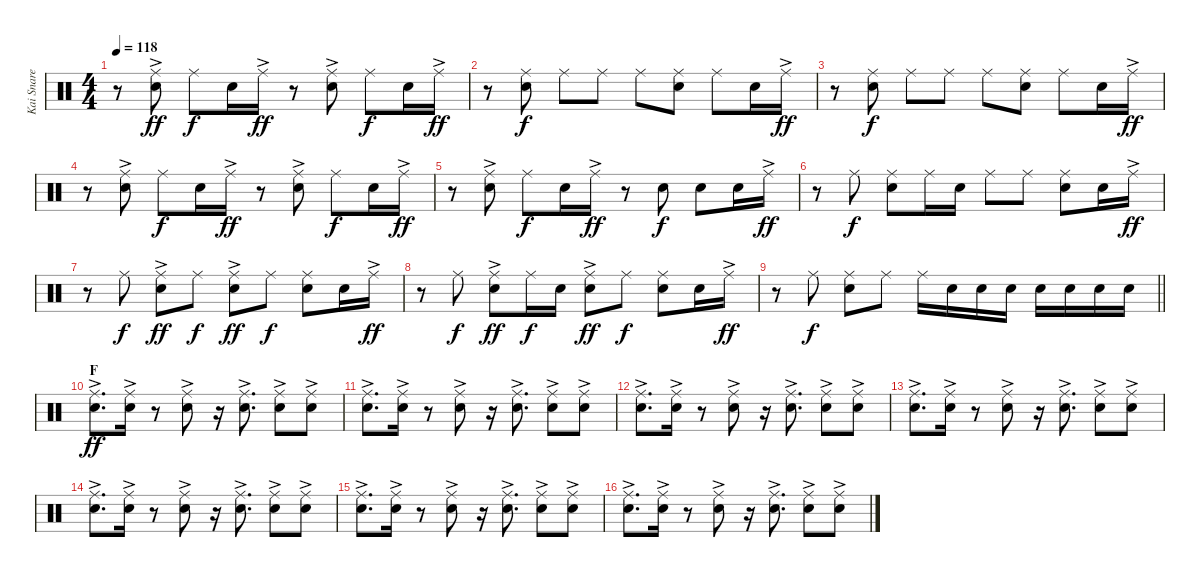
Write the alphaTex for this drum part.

\track ("Kai Snare" "Kai Snare") {instrument percussion}
\staff {score}
\articulation defaults
\ts (4 4)
\tempo 118
\clef neutral
\ks c
r.8{dy ff} ("Ride (middle)"{ac} "Snare (hit) 2").8 "Ride (middle)".8{dy f} "Snare (hit) 2".16 "Ride (middle)"{ac}.16{dy ff} r.8 ("Ride (middle)"{ac} "Snare (hit) 2").8 "Ride (middle)".8{dy f} "Snare (hit) 2".16 "Ride (middle)"{ac}.16{dy ff} |
r.8 ("Ride (middle)" "Snare (hit) 2").8{dy f} "Ride (middle)".8 "Ride (middle)".8 "Ride (middle)".8 ("Ride (middle)" "Snare (hit) 2").8 "Ride (middle)".8 "Snare (hit) 2".16 "Ride (middle)"{ac}.16{dy ff} |
r.8 ("Ride (middle)" "Snare (hit) 2").8{dy f} "Ride (middle)".8 "Ride (middle)".8 "Ride (middle)".8 ("Ride (middle)" "Snare (hit) 2").8 "Ride (middle)".8 "Snare (hit) 2".16 "Ride (middle)"{ac}.16{dy ff} |
r.8 ("Ride (middle)"{ac} "Snare (hit) 2").8 "Ride (middle)".8{dy f} "Snare (hit) 2".16 "Ride (middle)"{ac}.16{dy ff} r.8 ("Ride (middle)"{ac} "Snare (hit) 2").8 "Ride (middle)".8{dy f} "Snare (hit) 2".16 "Ride (middle)"{ac}.16{dy ff} |
r.8 ("Ride (middle)"{ac} "Snare (hit) 2").8 "Ride (middle)".8{dy f} "Snare (hit) 2".16 "Ride (middle)"{ac}.16{dy ff} r.8 "Snare (hit) 2".8{dy f} "Snare (hit) 2".8 "Snare (hit) 2".16 "Ride (middle)"{ac}.16{dy ff} |
r.8 "Ride (middle)".8{dy f} ("Ride (middle)" "Snare (hit) 2").8 "Ride (middle)".16 "Snare (hit) 2".16 "Ride (middle)".8 "Ride (middle)".8 ("Ride (middle)" "Snare (hit) 2").8 "Snare (hit) 2".16 "Ride (middle)"{ac}.16{dy ff} |
r.8 "Ride (middle)".8{dy f} ("Ride (middle)"{ac} "Snare (hit) 2").8{dy ff} "Ride (middle)".8{dy f} ("Ride (middle)"{ac} "Snare (hit) 2").8{dy ff} "Ride (middle)".8{dy f} ("Ride (middle)" "Snare (hit) 2").8 "Snare (hit) 2".16 "Ride (middle)"{ac}.16{dy ff} |
r.8 "Ride (middle)".8{dy f} ("Ride (middle)"{ac} "Snare (hit) 2").8{dy ff} "Ride (middle)".16{dy f} "Snare (hit) 2".16 ("Ride (middle)"{ac} "Snare (hit) 2").8{dy ff} "Ride (middle)".8{dy f} ("Ride (middle)" "Snare (hit) 2").8 "Snare (hit) 2".16 "Ride (middle)"{ac}.16{dy ff} |
\barLineRight lightlight
r.8 "Ride (middle)".8{dy f} ("Ride (middle)" "Snare (hit) 2").8 "Ride (middle)".8 "Ride (middle)".16 "Snare (hit) 2".16 "Snare (hit) 2".16 "Snare (hit) 2".16 "Snare (hit) 2".16 "Snare (hit) 2".16 "Snare (hit) 2".16 "Snare (hit) 2".16 |
\section ("" "F")
("Ride (middle)"{ac} "Snare (hit) 2").8{d dy ff} ("Ride (middle)"{ac} "Snare (hit) 2").16 r.8 ("Ride (middle)"{ac} "Snare (hit) 2").8 r.16 ("Ride (middle)"{ac} "Snare (hit) 2").8{d} ("Ride (middle)"{ac} "Snare (hit) 2").8 ("Ride (middle)"{ac} "Snare (hit) 2").8 |
("Ride (middle)"{ac} "Snare (hit) 2").8{d} ("Ride (middle)"{ac} "Snare (hit) 2").16 r.8 ("Ride (middle)"{ac} "Snare (hit) 2").8 r.16 ("Ride (middle)"{ac} "Snare (hit) 2").8{d} ("Ride (middle)"{ac} "Snare (hit) 2").8 ("Ride (middle)"{ac} "Snare (hit) 2").8 |
("Ride (middle)"{ac} "Snare (hit) 2").8{d} ("Ride (middle)"{ac} "Snare (hit) 2").16 r.8 ("Ride (middle)"{ac} "Snare (hit) 2").8 r.16 ("Ride (middle)"{ac} "Snare (hit) 2").8{d} ("Ride (middle)"{ac} "Snare (hit) 2").8 ("Ride (middle)"{ac} "Snare (hit) 2").8 |
("Ride (middle)"{ac} "Snare (hit) 2").8{d} ("Ride (middle)"{ac} "Snare (hit) 2").16 r.8 ("Ride (middle)"{ac} "Snare (hit) 2").8 r.16 ("Ride (middle)"{ac} "Snare (hit) 2").8{d} ("Ride (middle)"{ac} "Snare (hit) 2").8 ("Ride (middle)"{ac} "Snare (hit) 2").8 |
("Ride (middle)"{ac} "Snare (hit) 2").8{d} ("Ride (middle)"{ac} "Snare (hit) 2").16 r.8 ("Ride (middle)"{ac} "Snare (hit) 2").8 r.16 ("Ride (middle)"{ac} "Snare (hit) 2").8{d} ("Ride (middle)"{ac} "Snare (hit) 2").8 ("Ride (middle)"{ac} "Snare (hit) 2").8 |
("Ride (middle)"{ac} "Snare (hit) 2").8{d} ("Ride (middle)"{ac} "Snare (hit) 2").16 r.8 ("Ride (middle)"{ac} "Snare (hit) 2").8 r.16 ("Ride (middle)"{ac} "Snare (hit) 2").8{d} ("Ride (middle)"{ac} "Snare (hit) 2").8 ("Ride (middle)"{ac} "Snare (hit) 2").8 |
("Ride (middle)"{ac} "Snare (hit) 2").8{d} ("Ride (middle)"{ac} "Snare (hit) 2").16 r.8 ("Ride (middle)"{ac} "Snare (hit) 2").8 r.16 ("Ride (middle)"{ac} "Snare (hit) 2").8{d} ("Ride (middle)"{ac} "Snare (hit) 2").8 ("Ride (middle)"{ac} "Snare (hit) 2").8
